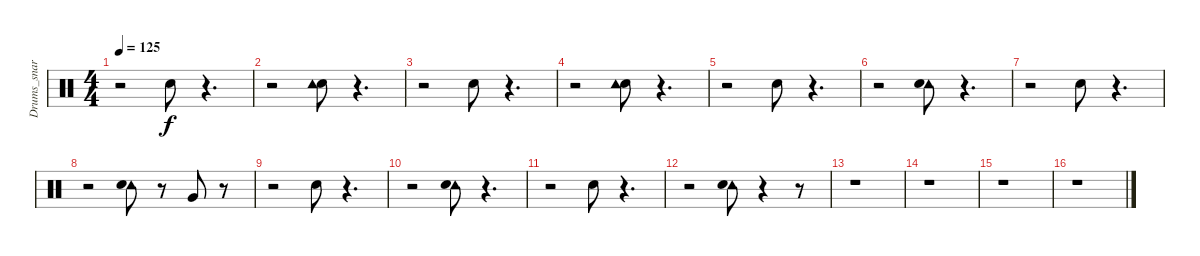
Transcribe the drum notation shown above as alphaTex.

\track ("Drums_snare&tom" "Drums_snar") {instrument percussion}
\staff {score}
\articulation defaults
\ts (4 4)
\tempo 125
\clef neutral
\ks c
r.2{dy f} "Electric Snare (hit)".8 r.4{d} |
r.2 ("Electric Snare (hit)" "Tambourine (hit)").8 r.4{d} |
r.2 "Electric Snare (hit)".8 r.4{d} |
r.2 ("Electric Snare (hit)" "Tambourine (hit)").8 r.4{d} |
r.2 "Electric Snare (hit)".8 r.4{d} |
r.2 ("Tambourine (hit)" "Electric Snare (hit)").8 r.4{d} |
r.2 "Electric Snare (hit)".8 r.4{d} |
r.2 ("Tambourine (hit)" "Electric Snare (hit)").8 r.8 "Very Low Tom (hit)".8 r.8 |
r.2 "Electric Snare (hit)".8 r.4{d} |
r.2 ("Tambourine (hit)" "Electric Snare (hit)").8 r.4{d} |
r.2 "Electric Snare (hit)".8 r.4{d} |
r.2 ("Tambourine (hit)" "Electric Snare (hit)").8 r.4 r.8 |
r.1 |
r.1 |
r.1 |
r.1
